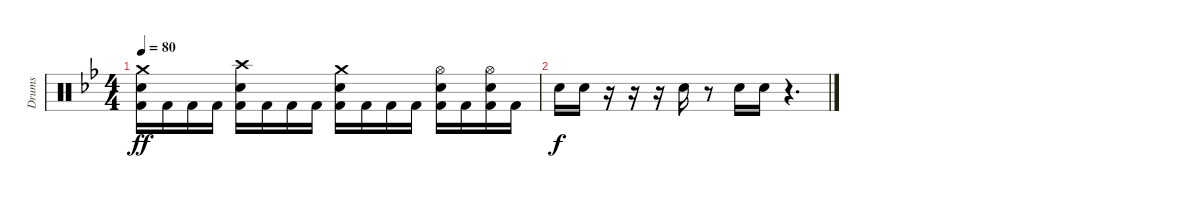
\track ("Drums" "Drums") {instrument percussion}
\staff {score}
\articulation defaults
\ts (4 4)
\tempo 80
\clef neutral
\ks gminor
("Kick (hit) 2" "Electric Snare (hit)" "Crash medium (hit)").16{dy ff} "Kick (hit) 2".16 "Kick (hit) 2".16 "Kick (hit) 2".16 ("Kick (hit) 2" "Electric Snare (hit)" "Crash high (hit)").16 "Kick (hit) 2".16 "Kick (hit) 2".16 "Kick (hit) 2".16 ("Kick (hit) 2" "Electric Snare (hit)" "Crash medium (hit)").16 "Kick (hit) 2".16 "Kick (hit) 2".16 "Kick (hit) 2".16 ("Kick (hit) 2" "Electric Snare (hit)" "Hi-Hat (open)").16 "Kick (hit) 2".16 ("Kick (hit) 2" "Electric Snare (hit)" "Hi-Hat (open)").16 "Kick (hit) 2".16 |
"Electric Snare (hit)".16{dy f} "Electric Snare (hit)".16 r.16 r.16 r.16 "Electric Snare (hit)".16 r.8 "Electric Snare (hit)".16 "Electric Snare (hit)".16 r.4{d}
